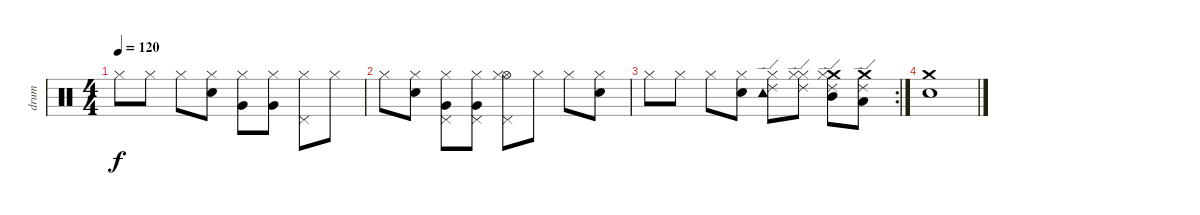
\track ("drum" "drum") {instrument percussion}
\staff {score}
\articulation defaults
\ts (4 4)
\tempo 120
\clef neutral
\ks c "Hi-Hat (closed)".8{dy f} "Hi-Hat (closed)".8 "Hi-Hat (closed)".8
("Snare (hit) 2" "Hi-Hat (closed)").8 ("Very Low Tom (hit)" "Hi-Hat (closed)").8 ("Very Low Tom (hit)" "Hi-Hat (closed)").8 ("Pedal Hi-Hat (hit)" "Hi-Hat (closed)").8 "Hi-Hat (closed)".8 |
"Hi-Hat (closed)".8 ("Snare (hit) 2" "Hi-Hat (closed)").8 ("Pedal Hi-Hat (hit)" "Very Low Tom (hit)" "Hi-Hat (closed)").8 ("Pedal Hi-Hat (hit)" "Very Low Tom (hit)" "Hi-Hat (closed)").8 ("Pedal Hi-Hat (hit)" "Hi-Hat (open)" "Hi-Hat (closed)").8 "Hi-Hat (closed)".8 "Hi-Hat (closed)".8 ("Snare (hit) 2" "Hi-Hat (closed)").8 |
\rc 2 "Hi-Hat (closed)".8 "Hi-Hat (closed)".8 "Hi-Hat (closed)".8
("Snare (hit) 2" "Hi-Hat (closed)").8 ("Ride (edge) 2" "Tambourine (hit)" "Hi-Hat (closed)").8 ("Ride (edge) 2" "Hi-Hat (closed)" "Hi-Hat (closed)").8 ("Mid Tom (hit)" "Ride (edge) 2" "Crash medium (hit)" "Hi-Hat (closed)").8 ("Low Floor Tom (hit)" "Ride (edge) 2" "Crash medium (hit)").8 |
("Crash medium (hit)" "Snare (hit)").1
